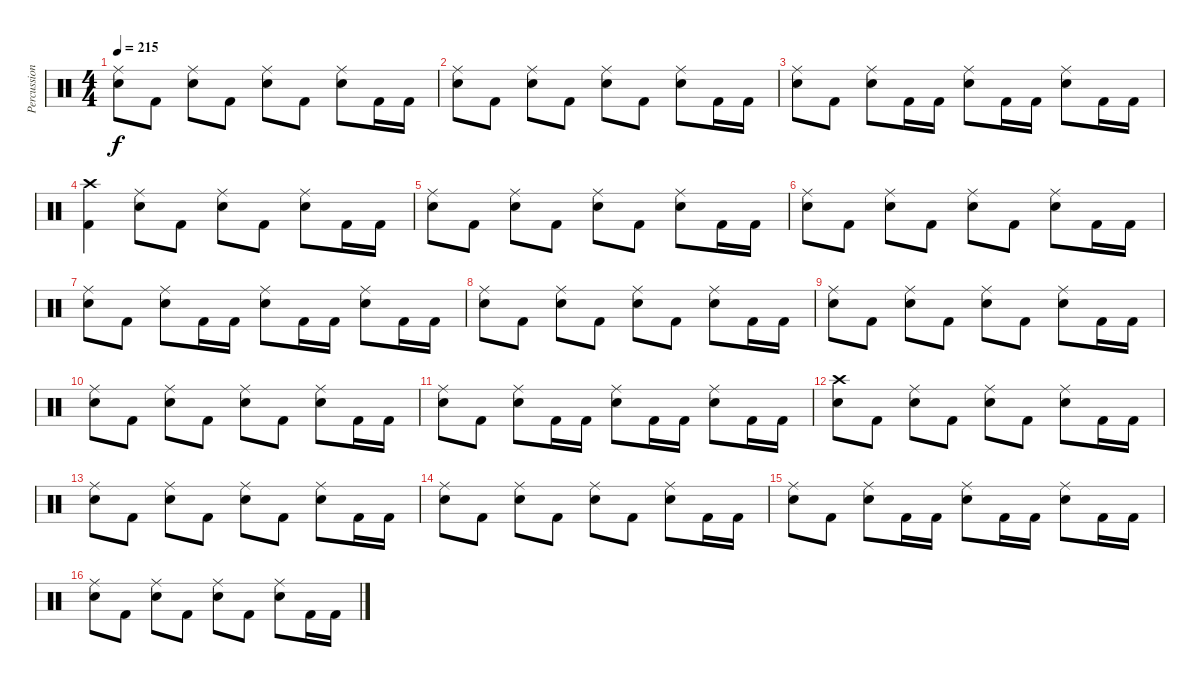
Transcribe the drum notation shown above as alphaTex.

\track ("Percussion" "Percussion") {instrument percussion}
\staff {score}
\articulation defaults
\ts (4 4)
\tempo 215
\clef neutral
\ks aminor
("Ride (middle)" "Snare (hit) 2").8{dy f} "Kick (hit) 2".8 ("Ride (middle)" "Snare (hit) 2").8 "Kick (hit) 2".8 ("Ride (middle)" "Snare (hit) 2").8 "Kick (hit) 2".8 ("Ride (middle)" "Snare (hit) 2").8 "Kick (hit) 2".16 "Kick (hit) 2".16 |
("Ride (middle)" "Snare (hit) 2").8 "Kick (hit) 2".8 ("Ride (middle)" "Snare (hit) 2").8 "Kick (hit) 2".8 ("Ride (middle)" "Snare (hit) 2").8 "Kick (hit) 2".8 ("Ride (middle)" "Snare (hit) 2").8 "Kick (hit) 2".16 "Kick (hit) 2".16 |
("Ride (middle)" "Snare (hit) 2").8 "Kick (hit) 2".8 ("Ride (middle)" "Snare (hit) 2").8 "Kick (hit) 2".16 "Kick (hit) 2".16 ("Ride (middle)" "Snare (hit) 2").8 "Kick (hit) 2".16 "Kick (hit) 2".16 ("Ride (middle)" "Snare (hit) 2").8 "Kick (hit) 2".16 "Kick (hit) 2".16 |
("Crash high (hit)" "Kick (hit) 2").4 ("Ride (middle)" "Snare (hit) 2").8 "Kick (hit) 2".8 ("Ride (middle)" "Snare (hit) 2").8 "Kick (hit) 2".8 ("Ride (middle)" "Snare (hit) 2").8 "Kick (hit) 2".16 "Kick (hit) 2".16 |
("Ride (middle)" "Snare (hit) 2").8 "Kick (hit) 2".8 ("Ride (middle)" "Snare (hit) 2").8 "Kick (hit) 2".8 ("Ride (middle)" "Snare (hit) 2").8 "Kick (hit) 2".8 ("Ride (middle)" "Snare (hit) 2").8 "Kick (hit) 2".16 "Kick (hit) 2".16 |
("Ride (middle)" "Snare (hit) 2").8 "Kick (hit) 2".8 ("Ride (middle)" "Snare (hit) 2").8 "Kick (hit) 2".8 ("Ride (middle)" "Snare (hit) 2").8 "Kick (hit) 2".8 ("Ride (middle)" "Snare (hit) 2").8 "Kick (hit) 2".16 "Kick (hit) 2".16 |
("Ride (middle)" "Snare (hit) 2").8 "Kick (hit) 2".8 ("Ride (middle)" "Snare (hit) 2").8 "Kick (hit) 2".16 "Kick (hit) 2".16 ("Ride (middle)" "Snare (hit) 2").8 "Kick (hit) 2".16 "Kick (hit) 2".16 ("Ride (middle)" "Snare (hit) 2").8 "Kick (hit) 2".16 "Kick (hit) 2".16 |
("Ride (middle)" "Snare (hit) 2").8 "Kick (hit) 2".8 ("Ride (middle)" "Snare (hit) 2").8 "Kick (hit) 2".8 ("Ride (middle)" "Snare (hit) 2").8 "Kick (hit) 2".8 ("Ride (middle)" "Snare (hit) 2").8 "Kick (hit) 2".16 "Kick (hit) 2".16 |
("Ride (middle)" "Snare (hit) 2").8 "Kick (hit) 2".8 ("Ride (middle)" "Snare (hit) 2").8 "Kick (hit) 2".8 ("Ride (middle)" "Snare (hit) 2").8 "Kick (hit) 2".8 ("Ride (middle)" "Snare (hit) 2").8 "Kick (hit) 2".16 "Kick (hit) 2".16 |
("Ride (middle)" "Snare (hit) 2").8 "Kick (hit) 2".8 ("Ride (middle)" "Snare (hit) 2").8 "Kick (hit) 2".8 ("Ride (middle)" "Snare (hit) 2").8 "Kick (hit) 2".8 ("Ride (middle)" "Snare (hit) 2").8 "Kick (hit) 2".16 "Kick (hit) 2".16 |
("Ride (middle)" "Snare (hit) 2").8 "Kick (hit) 2".8 ("Ride (middle)" "Snare (hit) 2").8 "Kick (hit) 2".16 "Kick (hit) 2".16 ("Ride (middle)" "Snare (hit) 2").8 "Kick (hit) 2".16 "Kick (hit) 2".16 ("Ride (middle)" "Snare (hit) 2").8 "Kick (hit) 2".16 "Kick (hit) 2".16 |
("Crash high (hit)" "Snare (hit) 2").8 "Kick (hit) 2".8 ("Ride (middle)" "Snare (hit) 2").8 "Kick (hit) 2".8 ("Ride (middle)" "Snare (hit) 2").8 "Kick (hit) 2".8 ("Ride (middle)" "Snare (hit) 2").8 "Kick (hit) 2".16 "Kick (hit) 2".16 |
("Ride (middle)" "Snare (hit) 2").8 "Kick (hit) 2".8 ("Ride (middle)" "Snare (hit) 2").8 "Kick (hit) 2".8 ("Ride (middle)" "Snare (hit) 2").8 "Kick (hit) 2".8 ("Ride (middle)" "Snare (hit) 2").8 "Kick (hit) 2".16 "Kick (hit) 2".16 |
("Ride (middle)" "Snare (hit) 2").8 "Kick (hit) 2".8 ("Ride (middle)" "Snare (hit) 2").8 "Kick (hit) 2".8 ("Ride (middle)" "Snare (hit) 2").8 "Kick (hit) 2".8 ("Ride (middle)" "Snare (hit) 2").8 "Kick (hit) 2".16 "Kick (hit) 2".16 |
("Ride (middle)" "Snare (hit) 2").8 "Kick (hit) 2".8 ("Ride (middle)" "Snare (hit) 2").8 "Kick (hit) 2".16 "Kick (hit) 2".16 ("Ride (middle)" "Snare (hit) 2").8 "Kick (hit) 2".16 "Kick (hit) 2".16 ("Ride (middle)" "Snare (hit) 2").8 "Kick (hit) 2".16 "Kick (hit) 2".16 |
("Ride (middle)" "Snare (hit) 2").8 "Kick (hit) 2".8 ("Ride (middle)" "Snare (hit) 2").8 "Kick (hit) 2".8 ("Ride (middle)" "Snare (hit) 2").8 "Kick (hit) 2".8 ("Ride (middle)" "Snare (hit) 2").8 "Kick (hit) 2".16 "Kick (hit) 2".16
